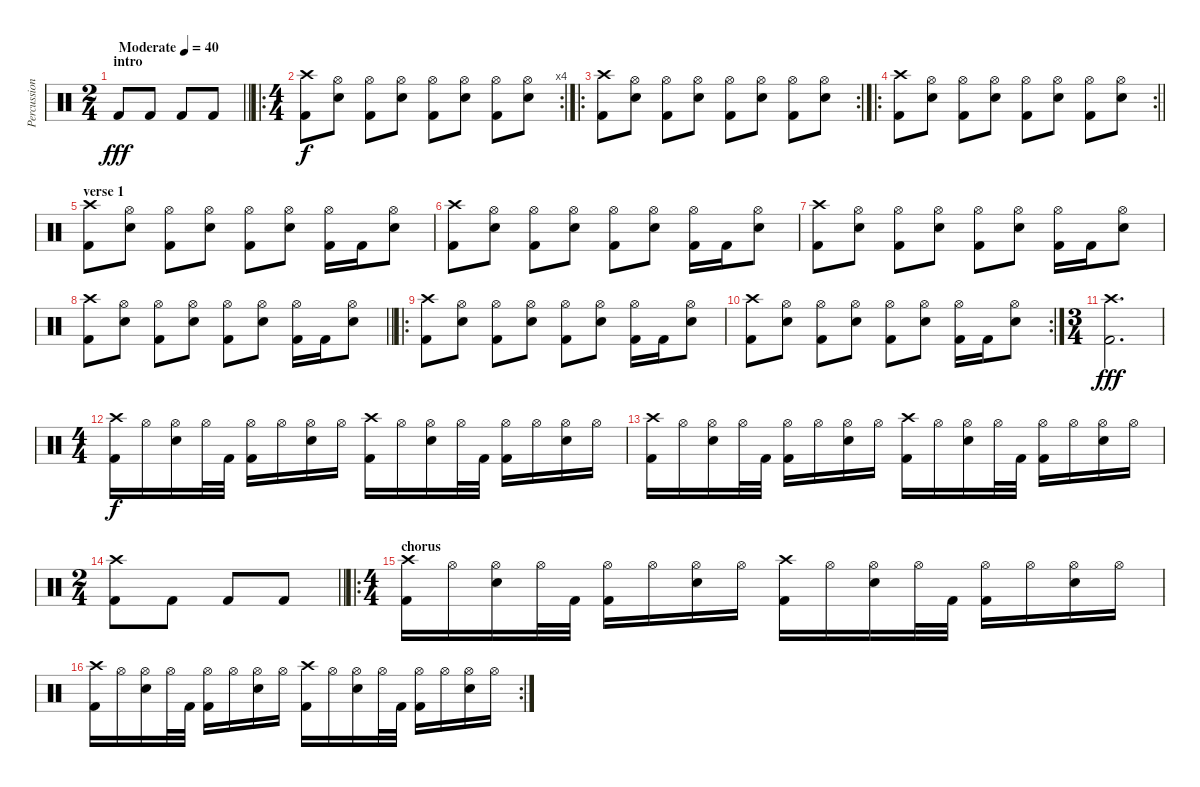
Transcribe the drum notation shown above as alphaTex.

\track ("Percussion" "Percussion") {instrument percussion}
\staff {score}
\articulation defaults
\ts (2 4)
\section ("" "intro")
\tempo (40 "Moderate")
\clef neutral
\barLineRight lightlight
\ks c "Kick (hit) 2".8{dy fff} "Kick (hit) 2".8 "Kick (hit) 2".8 "Kick (hit) 2".8
|
\ro
\rc 4
\ts (4 4)
("Crash high (hit)" "Kick (hit) 2").8{dy f} ("Hi-Hat (open)" "Snare (hit) 2").8 ("Hi-Hat (open)" "Kick (hit) 2").8 ("Hi-Hat (open)" "Snare (hit) 2").8 ("Hi-Hat (open)" "Kick (hit) 2").8 ("Hi-Hat (open)" "Snare (hit) 2").8 ("Hi-Hat (open)" "Kick (hit) 2").8 ("Hi-Hat (open)" "Snare (hit) 2").8 |
\ro
\rc 2
("Crash high (hit)" "Kick (hit) 2").8 ("Hi-Hat (open)" "Snare (hit) 2").8 ("Hi-Hat (open)" "Kick (hit) 2").8 ("Hi-Hat (open)" "Snare (hit) 2").8 ("Hi-Hat (open)" "Kick (hit) 2").8 ("Hi-Hat (open)" "Snare (hit) 2").8 ("Hi-Hat (open)" "Kick (hit) 2").8 ("Hi-Hat (open)" "Snare (hit) 2").8 |
\ro
\rc 2
\barLineRight lightlight
("Crash high (hit)" "Kick (hit) 2").8 ("Hi-Hat (open)" "Snare (hit) 2").8 ("Hi-Hat (open)" "Kick (hit) 2").8 ("Hi-Hat (open)" "Snare (hit) 2").8 ("Hi-Hat (open)" "Kick (hit) 2").8 ("Hi-Hat (open)" "Snare (hit) 2").8 ("Hi-Hat (open)" "Kick (hit) 2").8 ("Hi-Hat (open)" "Snare (hit) 2").8 |
\section ("" "verse 1")
("Crash high (hit)" "Kick (hit) 2").8 ("Hi-Hat (open)" "Snare (hit) 2").8 ("Hi-Hat (open)" "Kick (hit) 2").8 ("Hi-Hat (open)" "Snare (hit) 2").8 ("Hi-Hat (open)" "Kick (hit) 2").8 ("Hi-Hat (open)" "Snare (hit) 2").8 ("Hi-Hat (open)" "Kick (hit) 2").16 "Kick (hit) 2".16 ("Hi-Hat (open)" "Snare (hit) 2").8 |
("Crash high (hit)" "Kick (hit) 2").8 ("Hi-Hat (open)" "Snare (hit) 2").8 ("Hi-Hat (open)" "Kick (hit) 2").8 ("Hi-Hat (open)" "Snare (hit) 2").8 ("Hi-Hat (open)" "Kick (hit) 2").8 ("Hi-Hat (open)" "Snare (hit) 2").8 ("Hi-Hat (open)" "Kick (hit) 2").16 "Kick (hit) 2".16 ("Hi-Hat (open)" "Snare (hit) 2").8 |
("Crash high (hit)" "Kick (hit) 2").8 ("Hi-Hat (open)" "Snare (hit) 2").8 ("Hi-Hat (open)" "Kick (hit) 2").8 ("Hi-Hat (open)" "Snare (hit) 2").8 ("Hi-Hat (open)" "Kick (hit) 2").8 ("Hi-Hat (open)" "Snare (hit) 2").8 ("Hi-Hat (open)" "Kick (hit) 2").16 "Kick (hit) 2".16 ("Hi-Hat (open)" "Snare (hit) 2").8 |
\barLineRight lightlight
("Crash high (hit)" "Kick (hit) 2").8 ("Hi-Hat (open)" "Snare (hit) 2").8 ("Hi-Hat (open)" "Kick (hit) 2").8 ("Hi-Hat (open)" "Snare (hit) 2").8 ("Hi-Hat (open)" "Kick (hit) 2").8 ("Hi-Hat (open)" "Snare (hit) 2").8 ("Hi-Hat (open)" "Kick (hit) 2").16 "Kick (hit) 2".16 ("Hi-Hat (open)" "Snare (hit) 2").8 |
\ro
("Crash high (hit)" "Kick (hit) 2").8 ("Hi-Hat (open)" "Snare (hit) 2").8 ("Hi-Hat (open)" "Kick (hit) 2").8 ("Hi-Hat (open)" "Snare (hit) 2").8 ("Hi-Hat (open)" "Kick (hit) 2").8 ("Hi-Hat (open)" "Snare (hit) 2").8 ("Hi-Hat (open)" "Kick (hit) 2").16 "Kick (hit) 2".16 ("Hi-Hat (open)" "Snare (hit) 2").8 |
\rc 2
("Crash high (hit)" "Kick (hit) 2").8 ("Hi-Hat (open)" "Snare (hit) 2").8 ("Hi-Hat (open)" "Kick (hit) 2").8 ("Hi-Hat (open)" "Snare (hit) 2").8 ("Hi-Hat (open)" "Kick (hit) 2").8 ("Hi-Hat (open)" "Snare (hit) 2").8 ("Hi-Hat (open)" "Kick (hit) 2").16 "Kick (hit) 2".16 ("Hi-Hat (open)" "Snare (hit) 2").8 |
\ts (3 4)
("Crash high (hit)" "Kick (hit) 2").2{d dy fff} |
\ts (4 4)
("Crash high (hit)" "Kick (hit) 2").16{dy f} "Hi-Hat (open)".16 ("Hi-Hat (open)" "Snare (hit) 2").16 "Hi-Hat (open)".32 "Kick (hit) 2".32 ("Hi-Hat (open)" "Kick (hit) 2").16 "Hi-Hat (open)".16 ("Hi-Hat (open)" "Snare (hit) 2").16 "Hi-Hat (open)".16 ("Crash high (hit)" "Kick (hit) 2").16 "Hi-Hat (open)".16 ("Hi-Hat (open)" "Snare (hit) 2").16 "Hi-Hat (open)".32 "Kick (hit) 2".32 ("Hi-Hat (open)" "Kick (hit) 2").16 "Hi-Hat (open)".16 ("Hi-Hat (open)" "Snare (hit) 2").16 "Hi-Hat (open)".16 |
("Crash high (hit)" "Kick (hit) 2").16 "Hi-Hat (open)".16 ("Hi-Hat (open)" "Snare (hit) 2").16 "Hi-Hat (open)".32 "Kick (hit) 2".32 ("Hi-Hat (open)" "Kick (hit) 2").16 "Hi-Hat (open)".16 ("Hi-Hat (open)" "Snare (hit) 2").16 "Hi-Hat (open)".16 ("Crash high (hit)" "Kick (hit) 2").16 "Hi-Hat (open)".16 ("Hi-Hat (open)" "Snare (hit) 2").16 "Hi-Hat (open)".32 "Kick (hit) 2".32 ("Hi-Hat (open)" "Kick (hit) 2").16 "Hi-Hat (open)".16 ("Hi-Hat (open)" "Snare (hit) 2").16 "Hi-Hat (open)".16 |
\ts (2 4)
\barLineRight lightlight
("Crash high (hit)" "Kick (hit) 2").8 "Kick (hit) 2".8 "Kick (hit) 2".8 "Kick (hit) 2".8 |
\ro
\ts (4 4)
\section ("" "chorus")
("Crash high (hit)" "Kick (hit) 2").16 "Hi-Hat (open)".16 ("Hi-Hat (open)" "Snare (hit) 2").16 "Hi-Hat (open)".32 "Kick (hit) 2".32 ("Hi-Hat (open)" "Kick (hit) 2").16 "Hi-Hat (open)".16 ("Hi-Hat (open)" "Snare (hit) 2").16 "Hi-Hat (open)".16 ("Crash high (hit)" "Kick (hit) 2").16 "Hi-Hat (open)".16 ("Hi-Hat (open)" "Snare (hit) 2").16 "Hi-Hat (open)".32 "Kick (hit) 2".32 ("Hi-Hat (open)" "Kick (hit) 2").16 "Hi-Hat (open)".16 ("Hi-Hat (open)" "Snare (hit) 2").16 "Hi-Hat (open)".16 |
\rc 2
("Crash high (hit)" "Kick (hit) 2").16 "Hi-Hat (open)".16 ("Hi-Hat (open)" "Snare (hit) 2").16 "Hi-Hat (open)".32 "Kick (hit) 2".32 ("Hi-Hat (open)" "Kick (hit) 2").16 "Hi-Hat (open)".16 ("Hi-Hat (open)" "Snare (hit) 2").16 "Hi-Hat (open)".16 ("Crash high (hit)" "Kick (hit) 2").16 "Hi-Hat (open)".16 ("Hi-Hat (open)" "Snare (hit) 2").16 "Hi-Hat (open)".32 "Kick (hit) 2".32 ("Hi-Hat (open)" "Kick (hit) 2").16 "Hi-Hat (open)".16 ("Hi-Hat (open)" "Snare (hit) 2").16 "Hi-Hat (open)".16
